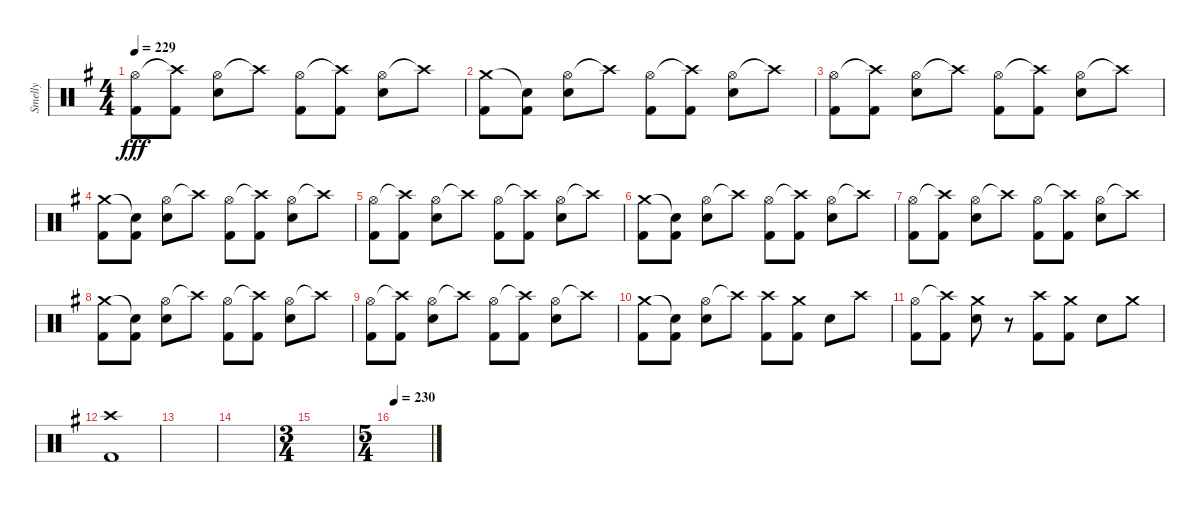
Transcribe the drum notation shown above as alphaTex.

\track ("Smelly" "Smelly") {instrument percussion}
\staff {score}
\articulation defaults
\ts (4 4)
\tempo 229
\clef neutral
\ks eminor
("Hi-Hat (open)" "Kick (hit) 2").8{dy fff} ("Crash high (hit)"{t} "Kick (hit) 2").8 ("Hi-Hat (open)" "Electric Snare (hit)").8 "Crash high (hit)"{t}.8 ("Hi-Hat (open)" "Kick (hit) 2").8 ("Crash high (hit)"{t} "Kick (hit) 2").8 ("Hi-Hat (open)" "Electric Snare (hit)").8 "Crash high (hit)"{t}.8 |
("Crash medium (hit)" "Kick (hit) 2").8 ("Snare (hit)"{t} "Kick (hit) 2").8 ("Hi-Hat (open)" "Electric Snare (hit)").8 "Crash high (hit)"{t}.8 ("Hi-Hat (open)" "Kick (hit) 2").8 ("Crash high (hit)"{t} "Kick (hit) 2").8 ("Hi-Hat (open)" "Electric Snare (hit)").8 "Crash high (hit)"{t}.8 |
("Hi-Hat (open)" "Kick (hit) 2").8 ("Crash high (hit)"{t} "Kick (hit) 2").8 ("Hi-Hat (open)" "Electric Snare (hit)").8 "Crash high (hit)"{t}.8 ("Hi-Hat (open)" "Kick (hit) 2").8 ("Crash high (hit)"{t} "Kick (hit) 2").8 ("Hi-Hat (open)" "Electric Snare (hit)").8 "Crash high (hit)"{t}.8 |
("Crash medium (hit)" "Kick (hit) 2").8 ("Snare (hit)"{t} "Kick (hit) 2").8 ("Hi-Hat (open)" "Electric Snare (hit)").8 "Crash high (hit)"{t}.8 ("Hi-Hat (open)" "Kick (hit) 2").8 ("Crash high (hit)"{t} "Kick (hit) 2").8 ("Hi-Hat (open)" "Electric Snare (hit)").8 "Crash high (hit)"{t}.8 |
("Hi-Hat (open)" "Kick (hit) 2").8 ("Crash high (hit)"{t} "Kick (hit) 2").8 ("Hi-Hat (open)" "Electric Snare (hit)").8 "Crash high (hit)"{t}.8 ("Hi-Hat (open)" "Kick (hit) 2").8 ("Crash high (hit)"{t} "Kick (hit) 2").8 ("Hi-Hat (open)" "Electric Snare (hit)").8 "Crash high (hit)"{t}.8 |
("Crash medium (hit)" "Kick (hit) 2").8 ("Snare (hit)"{t} "Kick (hit) 2").8 ("Hi-Hat (open)" "Electric Snare (hit)").8 "Crash high (hit)"{t}.8 ("Hi-Hat (open)" "Kick (hit) 2").8 ("Crash high (hit)"{t} "Kick (hit) 2").8 ("Hi-Hat (open)" "Electric Snare (hit)").8 "Crash high (hit)"{t}.8 |
("Hi-Hat (open)" "Kick (hit) 2").8 ("Crash high (hit)"{t} "Kick (hit) 2").8 ("Hi-Hat (open)" "Electric Snare (hit)").8 "Crash high (hit)"{t}.8 ("Hi-Hat (open)" "Kick (hit) 2").8 ("Crash high (hit)"{t} "Kick (hit) 2").8 ("Hi-Hat (open)" "Electric Snare (hit)").8 "Crash high (hit)"{t}.8 |
("Crash medium (hit)" "Kick (hit) 2").8 ("Snare (hit)"{t} "Kick (hit) 2").8 ("Hi-Hat (open)" "Electric Snare (hit)").8 "Crash high (hit)"{t}.8 ("Hi-Hat (open)" "Kick (hit) 2").8 ("Crash high (hit)"{t} "Kick (hit) 2").8 ("Hi-Hat (open)" "Electric Snare (hit)").8 "Crash high (hit)"{t}.8 |
("Hi-Hat (open)" "Kick (hit) 2").8 ("Crash high (hit)"{t} "Kick (hit) 2").8 ("Hi-Hat (open)" "Electric Snare (hit)").8 "Crash high (hit)"{t}.8 ("Hi-Hat (open)" "Kick (hit) 2").8 ("Crash high (hit)"{t} "Kick (hit) 2").8 ("Hi-Hat (open)" "Electric Snare (hit)").8 "Crash high (hit)"{t}.8 |
("Crash medium (hit)" "Kick (hit) 2").8 ("Snare (hit)"{t} "Kick (hit) 2").8 ("Hi-Hat (open)" "Electric Snare (hit)").8 "Crash high (hit)"{t}.8 ("Crash high (hit)" "Kick (hit) 2").8 ("Crash medium (hit)" "Kick (hit) 2").8 "Electric Snare (hit)".8 "Crash high (hit)".8 |
("Hi-Hat (open)" "Kick (hit) 2").8 ("Crash high (hit)"{t} "Kick (hit) 2").8 ("Crash medium (hit)" "Electric Snare (hit)").8 r.8 ("Crash high (hit)" "Kick (hit) 2").8 ("Crash medium (hit)" "Kick (hit) 2").8 "Electric Snare (hit)".8 "Crash medium (hit)".8 |
("Crash high (hit)" "Kick (hit) 2").1 |
|
|
\ts (3 4)
|
\ts (5 4)
\tempo 230
